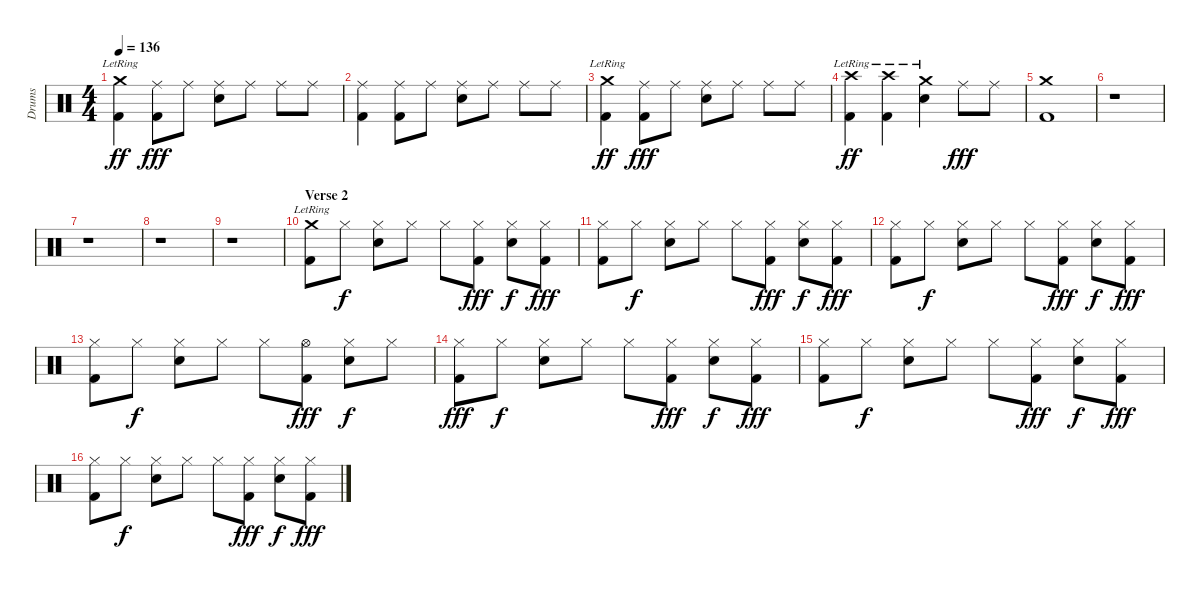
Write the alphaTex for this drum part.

\track ("Drums" "Drums") {instrument percussion}
\staff {score}
\articulation defaults
\ts (4 4)
\tempo 136
\clef neutral
\ks c
("Crash medium (hit)"{lr} "Kick (hit) 2").4{dy ff} ("Ride (middle)" "Kick (hit) 2").8{dy fff} "Ride (middle)".8 ("Ride (middle)" "Snare (hit) 2").8 "Ride (middle)".8 "Ride (middle)".8 "Ride (middle)".8 |
("Ride (middle)" "Kick (hit) 2").4{txt " "} ("Ride (middle)" "Kick (hit) 2").8 "Ride (middle)".8 ("Ride (middle)" "Snare (hit) 2").8 "Ride (middle)".8 "Ride (middle)".8 "Ride (middle)".8 |
("Crash medium (hit)"{lr} "Kick (hit) 2").4{dy ff} ("Ride (middle)" "Kick (hit) 2").8{dy fff} "Ride (middle)".8 ("Ride (middle)" "Snare (hit) 2").8 "Ride (middle)".8{txt " "} "Ride (middle)".8 "Ride (middle)".8 |
("Crash high (hit)"{lr} "Kick (hit) 2").4{dy ff} ("Crash high (hit)"{lr} "Kick (hit) 2").4 ("Crash medium (hit)"{lr} "Snare (hit) 2").4 "Ride (middle)".8{dy fff} "Ride (middle)".8 |
("Crash medium (hit)" "Kick (hit) 2").1 |
r.1 |
r.1 |
r.1 |
r.1 |
\section ("" "Verse 2")
("Crash medium (hit)"{lr} "Kick (hit) 2").8{txt " "} "Hi-Hat (closed)".8{dy f} ("Hi-Hat (closed)" "Snare (hit) 2").8 "Hi-Hat (closed)".8 "Hi-Hat (closed)".8 ("Hi-Hat (closed)" "Kick (hit) 2").8{dy fff} ("Hi-Hat (closed)" "Snare (hit) 2").8{dy f} ("Hi-Hat (closed)" "Kick (hit) 2").8{dy fff} |
("Hi-Hat (closed)" "Kick (hit) 2").8{txt " "} "Hi-Hat (closed)".8{dy f} ("Hi-Hat (closed)" "Snare (hit) 2").8 "Hi-Hat (closed)".8 "Hi-Hat (closed)".8 ("Hi-Hat (closed)" "Kick (hit) 2").8{dy fff} ("Hi-Hat (closed)" "Snare (hit) 2").8{dy f} ("Hi-Hat (closed)" "Kick (hit) 2").8{dy fff} |
("Hi-Hat (closed)" "Kick (hit) 2").8{txt " "} "Hi-Hat (closed)".8{dy f} ("Hi-Hat (closed)" "Snare (hit) 2").8 "Hi-Hat (closed)".8 "Hi-Hat (closed)".8 ("Hi-Hat (closed)" "Kick (hit) 2").8{dy fff} ("Hi-Hat (closed)" "Snare (hit) 2").8{dy f} ("Hi-Hat (closed)" "Kick (hit) 2").8{dy fff} |
("Hi-Hat (closed)" "Kick (hit) 2").8{txt " "} "Hi-Hat (closed)".8{dy f} ("Hi-Hat (closed)" "Snare (hit) 2").8 "Hi-Hat (closed)".8 "Hi-Hat (closed)".8 ("Hi-Hat (open)" "Kick (hit) 2").8{dy fff} ("Hi-Hat (closed)" "Snare (hit) 2").8{dy f} "Hi-Hat (closed)".8 |
("Hi-Hat (closed)" "Kick (hit) 2").8{txt " " dy fff} "Hi-Hat (closed)".8{dy f} ("Hi-Hat (closed)" "Snare (hit) 2").8 "Hi-Hat (closed)".8 "Hi-Hat (closed)".8 ("Hi-Hat (closed)" "Kick (hit) 2").8{dy fff} ("Hi-Hat (closed)" "Snare (hit) 2").8{dy f} ("Hi-Hat (closed)" "Kick (hit) 2").8{dy fff} |
("Hi-Hat (closed)" "Kick (hit) 2").8{txt " "} "Hi-Hat (closed)".8{dy f} ("Hi-Hat (closed)" "Snare (hit) 2").8 "Hi-Hat (closed)".8 "Hi-Hat (closed)".8 ("Hi-Hat (closed)" "Kick (hit) 2").8{dy fff} ("Hi-Hat (closed)" "Snare (hit) 2").8{dy f} ("Hi-Hat (closed)" "Kick (hit) 2").8{dy fff} |
("Hi-Hat (closed)" "Kick (hit) 2").8{txt " "} "Hi-Hat (closed)".8{dy f} ("Hi-Hat (closed)" "Snare (hit) 2").8 "Hi-Hat (closed)".8 "Hi-Hat (closed)".8 ("Hi-Hat (closed)" "Kick (hit) 2").8{dy fff} ("Hi-Hat (closed)" "Snare (hit) 2").8{dy f} ("Hi-Hat (closed)" "Kick (hit) 2").8{dy fff}
